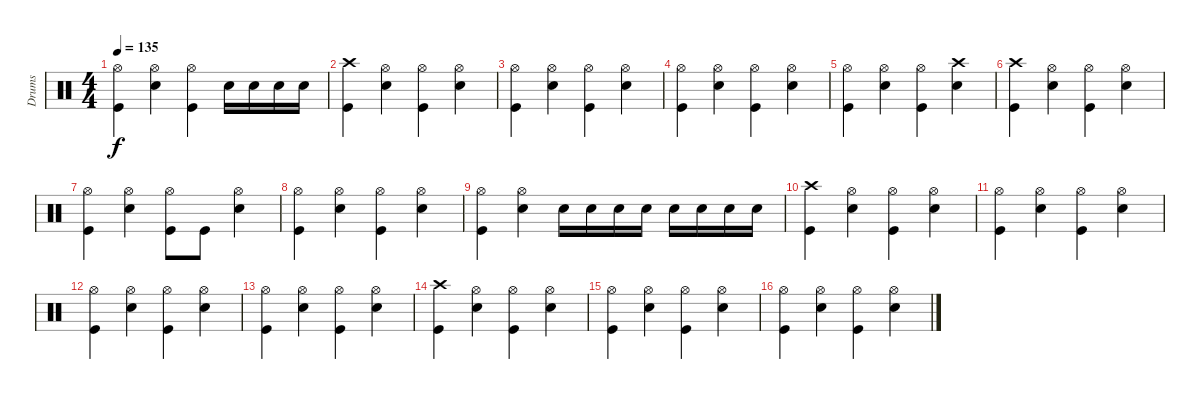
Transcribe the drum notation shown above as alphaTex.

\track ("Drums" "Drums") {instrument percussion}
\staff {score}
\articulation defaults
\ts (4 4)
\tempo 135
\clef neutral
\ks c
("Hi-Hat (open)" "Kick (hit)").4{dy f} ("Hi-Hat (open)" "Snare (hit) 2").4 ("Hi-Hat (open)" "Kick (hit)").4 "Snare (hit) 2".16 "Snare (hit) 2".16 "Snare (hit) 2".16 "Snare (hit) 2".16 |
("Crash high (hit)" "Kick (hit)").4 ("Hi-Hat (open)" "Snare (hit) 2").4 ("Hi-Hat (open)" "Kick (hit)").4 ("Hi-Hat (open)" "Snare (hit) 2").4 |
("Hi-Hat (open)" "Kick (hit)").4 ("Hi-Hat (open)" "Snare (hit) 2").4 ("Hi-Hat (open)" "Kick (hit)").4 ("Hi-Hat (open)" "Snare (hit) 2").4 |
("Hi-Hat (open)" "Kick (hit)").4 ("Hi-Hat (open)" "Snare (hit) 2").4 ("Hi-Hat (open)" "Kick (hit)").4 ("Hi-Hat (open)" "Snare (hit) 2").4 |
("Hi-Hat (open)" "Kick (hit)").4 ("Hi-Hat (open)" "Snare (hit) 2").4 ("Hi-Hat (open)" "Kick (hit)").4 ("Crash high (hit)" "Snare (hit) 2").4 |
("Crash high (hit)" "Kick (hit)").4 ("Hi-Hat (open)" "Snare (hit) 2").4 ("Hi-Hat (open)" "Kick (hit)").4 ("Hi-Hat (open)" "Snare (hit) 2").4 |
("Hi-Hat (open)" "Kick (hit)").4 ("Hi-Hat (open)" "Snare (hit) 2").4 ("Hi-Hat (open)" "Kick (hit)").8 "Kick (hit)".8 ("Hi-Hat (open)" "Snare (hit) 2").4 |
("Hi-Hat (open)" "Kick (hit)").4 ("Hi-Hat (open)" "Snare (hit) 2").4 ("Hi-Hat (open)" "Kick (hit)").4 ("Hi-Hat (open)" "Snare (hit) 2").4 |
("Hi-Hat (open)" "Kick (hit)").4 ("Hi-Hat (open)" "Snare (hit) 2").4 "Snare (hit) 2".16 "Snare (hit) 2".16 "Snare (hit) 2".16 "Snare (hit) 2".16 "Snare (hit) 2".16 "Snare (hit) 2".16 "Snare (hit) 2".16 "Snare (hit) 2".16 |
("Crash high (hit)" "Kick (hit)").4 ("Hi-Hat (open)" "Snare (hit) 2").4 ("Hi-Hat (open)" "Kick (hit)").4 ("Hi-Hat (open)" "Snare (hit) 2").4 |
("Hi-Hat (open)" "Kick (hit)").4 ("Hi-Hat (open)" "Snare (hit) 2").4 ("Hi-Hat (open)" "Kick (hit)").4 ("Hi-Hat (open)" "Snare (hit) 2").4 |
("Hi-Hat (open)" "Kick (hit)").4 ("Hi-Hat (open)" "Snare (hit) 2").4 ("Hi-Hat (open)" "Kick (hit)").4 ("Hi-Hat (open)" "Snare (hit) 2").4 |
("Hi-Hat (open)" "Kick (hit)").4 ("Hi-Hat (open)" "Snare (hit) 2").4 ("Hi-Hat (open)" "Kick (hit)").4 ("Hi-Hat (open)" "Snare (hit) 2").4 |
("Crash high (hit)" "Kick (hit)").4 ("Hi-Hat (open)" "Snare (hit) 2").4 ("Hi-Hat (open)" "Kick (hit)").4 ("Hi-Hat (open)" "Snare (hit) 2").4 |
("Hi-Hat (open)" "Kick (hit)").4 ("Hi-Hat (open)" "Snare (hit) 2").4 ("Hi-Hat (open)" "Kick (hit)").4 ("Hi-Hat (open)" "Snare (hit) 2").4 |
("Hi-Hat (open)" "Kick (hit)").4 ("Hi-Hat (open)" "Snare (hit) 2").4 ("Hi-Hat (open)" "Kick (hit)").4 ("Hi-Hat (open)" "Snare (hit) 2").4
